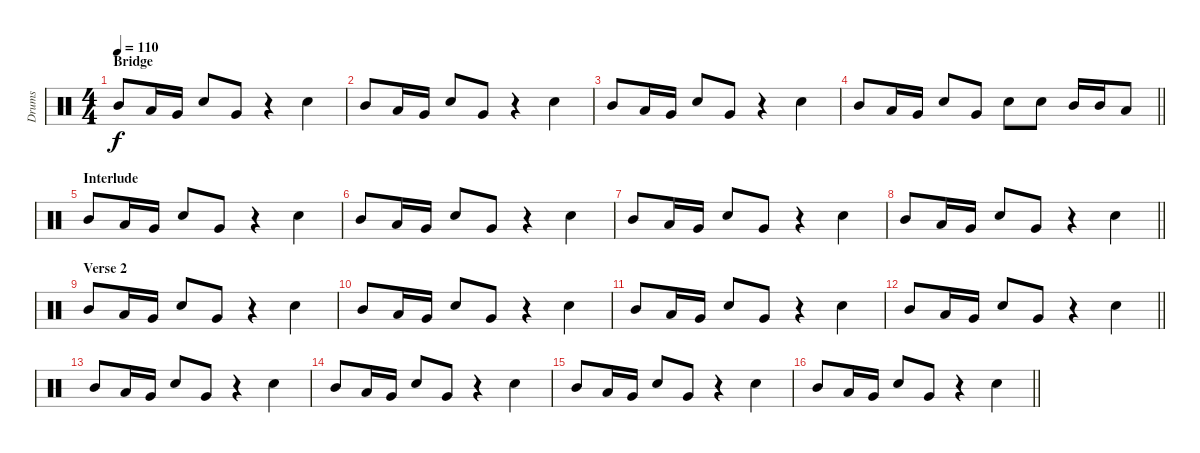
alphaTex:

\track ("Drums" "Drums") {instrument percussion}
\staff {score}
\articulation defaults
\ts (4 4)
\section ("" "Bridge")
\tempo 110
\clef neutral
\ks c "Mid Tom (hit)".8{dy f} "Low Tom (hit)".16 "Very Low Tom (hit)".16 "Snare (hit) 2".8 "Very Low Tom (hit)".8
r.4 "Snare (hit) 2".4 |
"Mid Tom (hit)".8 "Low Tom (hit)".16 "Very Low Tom (hit)".16 "Snare (hit) 2".8 "Very Low Tom (hit)".8 r.4 "Snare (hit) 2".4 |
"Mid Tom (hit)".8 "Low Tom (hit)".16 "Very Low Tom (hit)".16 "Snare (hit) 2".8 "Very Low Tom (hit)".8 r.4 "Snare (hit) 2".4 |
\barLineRight lightlight "Mid Tom (hit)".8 "Low Tom (hit)".16 "Very Low Tom (hit)".16 "Snare (hit) 2".8 "Very Low Tom (hit)".8 "Snare (hit) 2".8 "Snare (hit) 2".8 "Mid Tom (hit)".16 "Mid Tom (hit)".16 "Low Tom (hit)".8
|
\section ("" "Interlude")
"Mid Tom (hit)".8 "Low Tom (hit)".16 "Very Low Tom (hit)".16 "Snare (hit) 2".8 "Very Low Tom (hit)".8 r.4 "Snare (hit) 2".4 |
"Mid Tom (hit)".8 "Low Tom (hit)".16 "Very Low Tom (hit)".16 "Snare (hit) 2".8 "Very Low Tom (hit)".8 r.4 "Snare (hit) 2".4 |
"Mid Tom (hit)".8 "Low Tom (hit)".16 "Very Low Tom (hit)".16 "Snare (hit) 2".8 "Very Low Tom (hit)".8 r.4 "Snare (hit) 2".4 |
\barLineRight lightlight "Mid Tom (hit)".8 "Low Tom (hit)".16 "Very Low Tom (hit)".16 "Snare (hit) 2".8 "Very Low Tom (hit)".8
r.4 "Snare (hit) 2".4 |
\section ("" "Verse 2")
"Mid Tom (hit)".8 "Low Tom (hit)".16 "Very Low Tom (hit)".16 "Snare (hit) 2".8 "Very Low Tom (hit)".8 r.4 "Snare (hit) 2".4 |
"Mid Tom (hit)".8 "Low Tom (hit)".16 "Very Low Tom (hit)".16 "Snare (hit) 2".8 "Very Low Tom (hit)".8 r.4 "Snare (hit) 2".4 |
"Mid Tom (hit)".8 "Low Tom (hit)".16 "Very Low Tom (hit)".16 "Snare (hit) 2".8 "Very Low Tom (hit)".8 r.4 "Snare (hit) 2".4 |
\barLineRight lightlight "Mid Tom (hit)".8 "Low Tom (hit)".16 "Very Low Tom (hit)".16 "Snare (hit) 2".8 "Very Low Tom (hit)".8
r.4 "Snare (hit) 2".4 |
"Mid Tom (hit)".8 "Low Tom (hit)".16 "Very Low Tom (hit)".16 "Snare (hit) 2".8 "Very Low Tom (hit)".8 r.4 "Snare (hit) 2".4 |
"Mid Tom (hit)".8 "Low Tom (hit)".16 "Very Low Tom (hit)".16 "Snare (hit) 2".8 "Very Low Tom (hit)".8 r.4 "Snare (hit) 2".4 |
"Mid Tom (hit)".8 "Low Tom (hit)".16 "Very Low Tom (hit)".16 "Snare (hit) 2".8 "Very Low Tom (hit)".8 r.4 "Snare (hit) 2".4 |
\barLineRight lightlight "Mid Tom (hit)".8 "Low Tom (hit)".16 "Very Low Tom (hit)".16 "Snare (hit) 2".8 "Very Low Tom (hit)".8
r.4 "Snare (hit) 2".4
